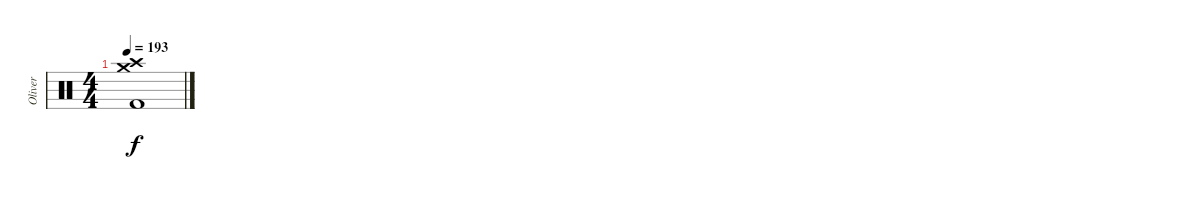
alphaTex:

\track ("Oliver" "Oliver") {instrument percussion}
\staff {score}
\articulation defaults
\ts (4 4)
\tempo 193
\clef neutral
\ks c
("Crash medium (hit)" "Crash high (hit)" "Kick (hit) 2").1{dy f}
